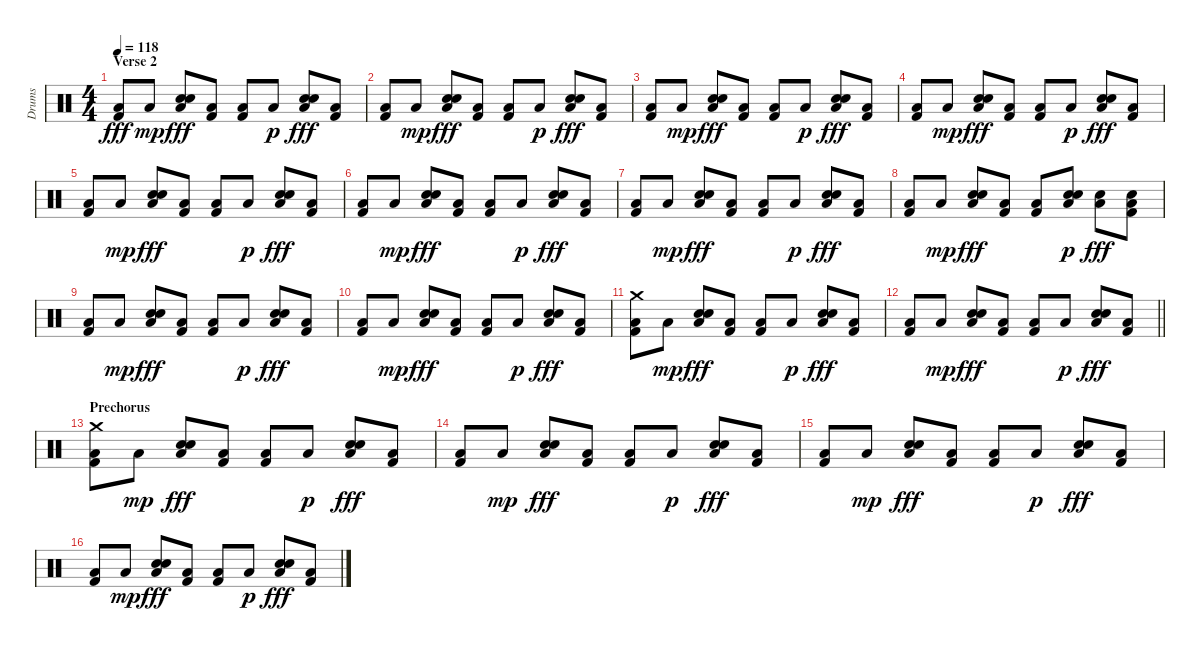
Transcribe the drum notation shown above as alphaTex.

\track ("Drums" "Drums") {instrument percussion}
\staff {score}
\articulation defaults
\ts (4 4)
\section ("" "Verse 2")
\tempo 118
\clef neutral
\ks c
("Low Floor Tom (hit)" "Kick (hit) 2").8{dy fff} "Low Floor Tom (hit)".8{dy mp} ("Hand Clap (hit)" "Snare (hit) 2" "Low Floor Tom (hit)").8{dy fff} ("Low Floor Tom (hit)" "Kick (hit) 2").8 ("Low Floor Tom (hit)" "Kick (hit) 2").8 "Low Floor Tom (hit)".8{dy p} ("Hand Clap (hit)" "Snare (hit) 2" "Low Floor Tom (hit)").8{dy fff} ("Low Floor Tom (hit)" "Kick (hit) 2").8 |
("Low Floor Tom (hit)" "Kick (hit) 2").8 "Low Floor Tom (hit)".8{dy mp} ("Hand Clap (hit)" "Snare (hit) 2" "Low Floor Tom (hit)").8{dy fff} ("Low Floor Tom (hit)" "Kick (hit) 2").8 ("Low Floor Tom (hit)" "Kick (hit) 2").8 "Low Floor Tom (hit)".8{dy p} ("Hand Clap (hit)" "Snare (hit) 2" "Low Floor Tom (hit)").8{dy fff} ("Low Floor Tom (hit)" "Kick (hit) 2").8 |
("Low Floor Tom (hit)" "Kick (hit) 2").8 "Low Floor Tom (hit)".8{dy mp} ("Hand Clap (hit)" "Snare (hit) 2" "Low Floor Tom (hit)").8{dy fff} ("Low Floor Tom (hit)" "Kick (hit) 2").8 ("Low Floor Tom (hit)" "Kick (hit) 2").8 "Low Floor Tom (hit)".8{dy p} ("Hand Clap (hit)" "Snare (hit) 2" "Low Floor Tom (hit)").8{dy fff} ("Low Floor Tom (hit)" "Kick (hit) 2").8 |
("Low Floor Tom (hit)" "Kick (hit) 2").8 "Low Floor Tom (hit)".8{dy mp} ("Hand Clap (hit)" "Snare (hit) 2" "Low Floor Tom (hit)").8{dy fff} ("Low Floor Tom (hit)" "Kick (hit) 2").8 ("Low Floor Tom (hit)" "Kick (hit) 2").8 "Low Floor Tom (hit)".8{dy p} ("Hand Clap (hit)" "Snare (hit) 2" "Low Floor Tom (hit)").8{dy fff} ("Low Floor Tom (hit)" "Kick (hit) 2").8 |
("Low Floor Tom (hit)" "Kick (hit) 2").8 "Low Floor Tom (hit)".8{dy mp} ("Hand Clap (hit)" "Snare (hit) 2" "Low Floor Tom (hit)").8{dy fff} ("Low Floor Tom (hit)" "Kick (hit) 2").8 ("Low Floor Tom (hit)" "Kick (hit) 2").8 "Low Floor Tom (hit)".8{dy p} ("Hand Clap (hit)" "Snare (hit) 2" "Low Floor Tom (hit)").8{dy fff} ("Low Floor Tom (hit)" "Kick (hit) 2").8 |
("Low Floor Tom (hit)" "Kick (hit) 2").8 "Low Floor Tom (hit)".8{dy mp} ("Hand Clap (hit)" "Snare (hit) 2" "Low Floor Tom (hit)").8{dy fff} ("Low Floor Tom (hit)" "Kick (hit) 2").8 ("Low Floor Tom (hit)" "Kick (hit) 2").8 "Low Floor Tom (hit)".8{dy p} ("Hand Clap (hit)" "Snare (hit) 2" "Low Floor Tom (hit)").8{dy fff} ("Low Floor Tom (hit)" "Kick (hit) 2").8 |
("Low Floor Tom (hit)" "Kick (hit) 2").8 "Low Floor Tom (hit)".8{dy mp} ("Hand Clap (hit)" "Snare (hit) 2" "Low Floor Tom (hit)").8{dy fff} ("Low Floor Tom (hit)" "Kick (hit) 2").8 ("Low Floor Tom (hit)" "Kick (hit) 2").8 "Low Floor Tom (hit)".8{dy p} ("Hand Clap (hit)" "Snare (hit) 2" "Low Floor Tom (hit)").8{dy fff} ("Low Floor Tom (hit)" "Kick (hit) 2").8 |
("Low Floor Tom (hit)" "Kick (hit) 2").8 "Low Floor Tom (hit)".8{dy mp} ("Hand Clap (hit)" "Snare (hit) 2" "Low Floor Tom (hit)").8{dy fff} ("Low Floor Tom (hit)" "Kick (hit) 2").8 ("Low Floor Tom (hit)" "Kick (hit) 2").8 ("Hand Clap (hit)" "Snare (hit) 2" "Low Floor Tom (hit)").8{dy p} ("Snare (hit) 2" "Low Floor Tom (hit)").8{dy fff} ("Snare (hit) 2" "Low Floor Tom (hit)" "Kick (hit) 2").8 |
("Low Floor Tom (hit)" "Kick (hit) 2").8 "Low Floor Tom (hit)".8{dy mp} ("Hand Clap (hit)" "Snare (hit) 2" "Low Floor Tom (hit)").8{dy fff} ("Low Floor Tom (hit)" "Kick (hit) 2").8 ("Low Floor Tom (hit)" "Kick (hit) 2").8 "Low Floor Tom (hit)".8{dy p} ("Hand Clap (hit)" "Snare (hit) 2" "Low Floor Tom (hit)").8{dy fff} ("Low Floor Tom (hit)" "Kick (hit) 2").8 |
("Low Floor Tom (hit)" "Kick (hit) 2").8 "Low Floor Tom (hit)".8{dy mp} ("Hand Clap (hit)" "Snare (hit) 2" "Low Floor Tom (hit)").8{dy fff} ("Low Floor Tom (hit)" "Kick (hit) 2").8 ("Low Floor Tom (hit)" "Kick (hit) 2").8 "Low Floor Tom (hit)".8{dy p} ("Hand Clap (hit)" "Snare (hit) 2" "Low Floor Tom (hit)").8{dy fff} ("Low Floor Tom (hit)" "Kick (hit) 2").8 |
("Crash medium (hit)" "Low Floor Tom (hit)" "Kick (hit) 2").8 "Low Floor Tom (hit)".8{dy mp} ("Hand Clap (hit)" "Snare (hit) 2" "Low Floor Tom (hit)").8{dy fff} ("Low Floor Tom (hit)" "Kick (hit) 2").8 ("Low Floor Tom (hit)" "Kick (hit) 2").8 "Low Floor Tom (hit)".8{dy p} ("Hand Clap (hit)" "Snare (hit) 2" "Low Floor Tom (hit)").8{dy fff} ("Low Floor Tom (hit)" "Kick (hit) 2").8 |
\barLineRight lightlight
("Low Floor Tom (hit)" "Kick (hit) 2").8 "Low Floor Tom (hit)".8{dy mp} ("Hand Clap (hit)" "Snare (hit) 2" "Low Floor Tom (hit)").8{dy fff} ("Low Floor Tom (hit)" "Kick (hit) 2").8 ("Low Floor Tom (hit)" "Kick (hit) 2").8 "Low Floor Tom (hit)".8{dy p} ("Hand Clap (hit)" "Snare (hit) 2" "Low Floor Tom (hit)").8{dy fff} ("Low Floor Tom (hit)" "Kick (hit) 2").8 |
\section ("" "Prechorus")
("Crash medium (hit)" "Low Floor Tom (hit)" "Kick (hit) 2").8 "Low Floor Tom (hit)".8{dy mp} ("Hand Clap (hit)" "Snare (hit) 2" "Low Floor Tom (hit)").8{dy fff} ("Low Floor Tom (hit)" "Kick (hit) 2").8 ("Low Floor Tom (hit)" "Kick (hit) 2").8 "Low Floor Tom (hit)".8{dy p} ("Hand Clap (hit)" "Snare (hit) 2" "Low Floor Tom (hit)").8{dy fff} ("Low Floor Tom (hit)" "Kick (hit) 2").8 |
("Low Floor Tom (hit)" "Kick (hit) 2").8 "Low Floor Tom (hit)".8{dy mp} ("Hand Clap (hit)" "Snare (hit) 2" "Low Floor Tom (hit)").8{dy fff} ("Low Floor Tom (hit)" "Kick (hit) 2").8 ("Low Floor Tom (hit)" "Kick (hit) 2").8 "Low Floor Tom (hit)".8{dy p} ("Hand Clap (hit)" "Snare (hit) 2" "Low Floor Tom (hit)").8{dy fff} ("Low Floor Tom (hit)" "Kick (hit) 2").8 |
("Low Floor Tom (hit)" "Kick (hit) 2").8 "Low Floor Tom (hit)".8{dy mp} ("Hand Clap (hit)" "Snare (hit) 2" "Low Floor Tom (hit)").8{dy fff} ("Low Floor Tom (hit)" "Kick (hit) 2").8 ("Low Floor Tom (hit)" "Kick (hit) 2").8 "Low Floor Tom (hit)".8{dy p} ("Hand Clap (hit)" "Snare (hit) 2" "Low Floor Tom (hit)").8{dy fff} ("Low Floor Tom (hit)" "Kick (hit) 2").8 |
("Low Floor Tom (hit)" "Kick (hit) 2").8 "Low Floor Tom (hit)".8{dy mp} ("Hand Clap (hit)" "Snare (hit) 2" "Low Floor Tom (hit)").8{dy fff} ("Low Floor Tom (hit)" "Kick (hit) 2").8 ("Low Floor Tom (hit)" "Kick (hit) 2").8 "Low Floor Tom (hit)".8{dy p} ("Hand Clap (hit)" "Snare (hit) 2" "Low Floor Tom (hit)").8{dy fff} ("Low Floor Tom (hit)" "Kick (hit) 2").8
